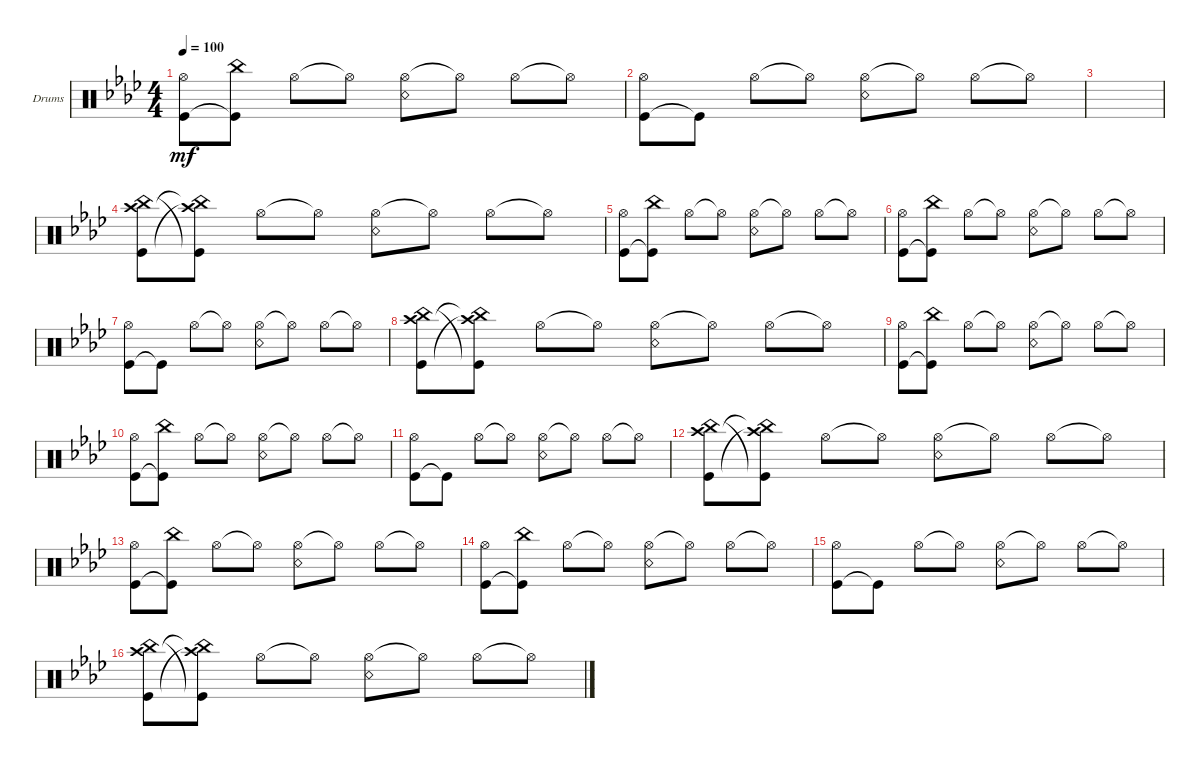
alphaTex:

\defaultSystemsLayout 4
\bracketExtendMode groupsimilarinstruments
\firstSystemTrackNameOrientation horizontal
\otherSystemsTrackNameOrientation horizontal
\track ("Drumkit" "Drums") {multiBarRest instrument percussion}
\staff {score}
\articulation defaults
\ts (4 4)
\tempo 100
\clef neutral
\ks fminor
("Kick (hit)" "Hi-Hat (open)").8{dy mf} ("Kick (hit)"{t} "China (hit)").8 "Hi-Hat (open)".8 "Hi-Hat (open)"{t}.8 ("Hi-Hat (open)" "Snare (rim shot)").8 "Hi-Hat (open)"{t}.8 "Hi-Hat (open)".8 "Hi-Hat (open)"{t}.8 |
("Kick (hit)" "Hi-Hat (open)").8 "Kick (hit)"{t}.8 "Hi-Hat (open)".8 "Hi-Hat (open)"{t}.8 ("Hi-Hat (open)" "Snare (rim shot)").8 "Hi-Hat (open)"{t}.8 "Hi-Hat (open)".8 "Hi-Hat (open)"{t}.8 |
|
("China (hit)" "Crash high (hit)" "Kick (hit)").8 ("Kick (hit)"{t} "China (hit)"{t} "Crash high (hit)"{t}).8 "Hi-Hat (open)".8 "Hi-Hat (open)"{t}.8 ("Hi-Hat (open)" "Snare (rim shot)").8 "Hi-Hat (open)"{t}.8 "Hi-Hat (open)".8 "Hi-Hat (open)"{t}.8 |
("Kick (hit)" "Hi-Hat (open)").8 ("Kick (hit)"{t} "China (hit)").8 "Hi-Hat (open)".8 "Hi-Hat (open)"{t}.8 ("Hi-Hat (open)" "Snare (rim shot)").8 "Hi-Hat (open)"{t}.8 "Hi-Hat (open)".8 "Hi-Hat (open)"{t}.8 |
("Kick (hit)" "Hi-Hat (open)").8 ("Kick (hit)"{t} "China (hit)").8 "Hi-Hat (open)".8 "Hi-Hat (open)"{t}.8 ("Hi-Hat (open)" "Snare (rim shot)").8 "Hi-Hat (open)"{t}.8 "Hi-Hat (open)".8 "Hi-Hat (open)"{t}.8 |
("Kick (hit)" "Hi-Hat (open)").8 "Kick (hit)"{t}.8 "Hi-Hat (open)".8 "Hi-Hat (open)"{t}.8 ("Hi-Hat (open)" "Snare (rim shot)").8 "Hi-Hat (open)"{t}.8 "Hi-Hat (open)".8 "Hi-Hat (open)"{t}.8 |
("China (hit)" "Crash high (hit)" "Kick (hit)").8 ("Kick (hit)"{t} "China (hit)"{t} "Crash high (hit)"{t}).8 "Hi-Hat (open)".8 "Hi-Hat (open)"{t}.8 ("Hi-Hat (open)" "Snare (rim shot)").8 "Hi-Hat (open)"{t}.8 "Hi-Hat (open)".8 "Hi-Hat (open)"{t}.8 |
("Kick (hit)" "Hi-Hat (open)").8 ("Kick (hit)"{t} "China (hit)").8 "Hi-Hat (open)".8 "Hi-Hat (open)"{t}.8 ("Hi-Hat (open)" "Snare (rim shot)").8 "Hi-Hat (open)"{t}.8 "Hi-Hat (open)".8 "Hi-Hat (open)"{t}.8 |
("Kick (hit)" "Hi-Hat (open)").8 ("Kick (hit)"{t} "China (hit)").8 "Hi-Hat (open)".8 "Hi-Hat (open)"{t}.8 ("Hi-Hat (open)" "Snare (rim shot)").8 "Hi-Hat (open)"{t}.8 "Hi-Hat (open)".8 "Hi-Hat (open)"{t}.8 |
("Kick (hit)" "Hi-Hat (open)").8 "Kick (hit)"{t}.8 "Hi-Hat (open)".8 "Hi-Hat (open)"{t}.8 ("Hi-Hat (open)" "Snare (rim shot)").8 "Hi-Hat (open)"{t}.8 "Hi-Hat (open)".8 "Hi-Hat (open)"{t}.8 |
("China (hit)" "Crash high (hit)" "Kick (hit)").8 ("Kick (hit)"{t} "China (hit)"{t} "Crash high (hit)"{t}).8 "Hi-Hat (open)".8 "Hi-Hat (open)"{t}.8 ("Hi-Hat (open)" "Snare (rim shot)").8 "Hi-Hat (open)"{t}.8 "Hi-Hat (open)".8 "Hi-Hat (open)"{t}.8 |
("Kick (hit)" "Hi-Hat (open)").8 ("Kick (hit)"{t} "China (hit)").8 "Hi-Hat (open)".8 "Hi-Hat (open)"{t}.8 ("Hi-Hat (open)" "Snare (rim shot)").8 "Hi-Hat (open)"{t}.8 "Hi-Hat (open)".8 "Hi-Hat (open)"{t}.8 |
("Kick (hit)" "Hi-Hat (open)").8 ("Kick (hit)"{t} "China (hit)").8 "Hi-Hat (open)".8 "Hi-Hat (open)"{t}.8 ("Hi-Hat (open)" "Snare (rim shot)").8 "Hi-Hat (open)"{t}.8 "Hi-Hat (open)".8 "Hi-Hat (open)"{t}.8 |
("Kick (hit)" "Hi-Hat (open)").8 "Kick (hit)"{t}.8 "Hi-Hat (open)".8 "Hi-Hat (open)"{t}.8 ("Hi-Hat (open)" "Snare (rim shot)").8 "Hi-Hat (open)"{t}.8 "Hi-Hat (open)".8 "Hi-Hat (open)"{t}.8 |
("China (hit)" "Crash high (hit)" "Kick (hit)").8 ("Kick (hit)"{t} "China (hit)"{t} "Crash high (hit)"{t}).8 "Hi-Hat (open)".8 "Hi-Hat (open)"{t}.8 ("Hi-Hat (open)" "Snare (rim shot)").8 "Hi-Hat (open)"{t}.8 "Hi-Hat (open)".8 "Hi-Hat (open)"{t}.8
